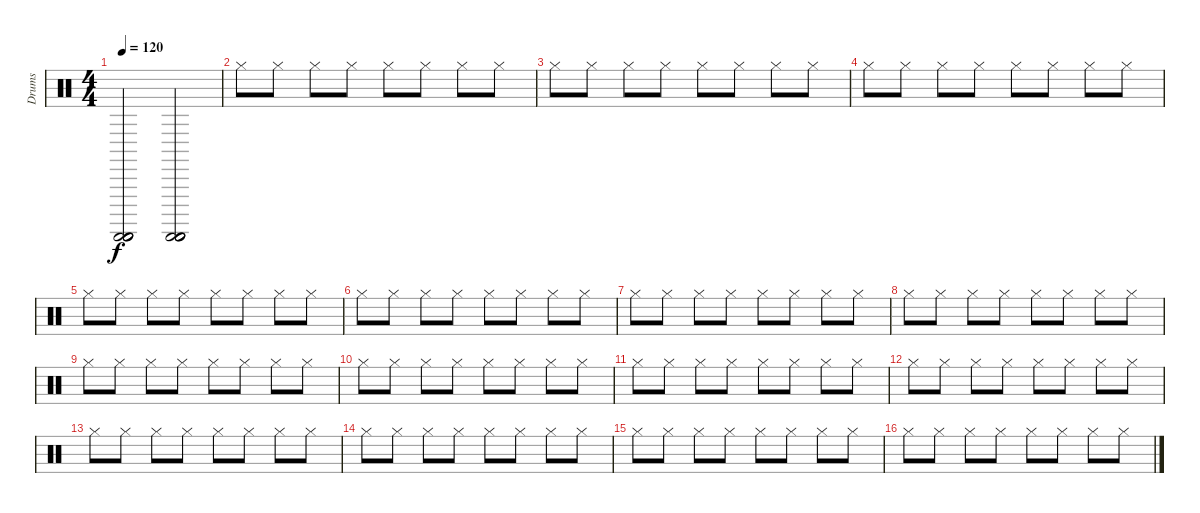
\track ("Drums" "Drums") {instrument percussion}
\staff {score}
\articulation defaults
\ts (4 4)
\tempo 120
\clef neutral
\ks c
("Guiro (scrap-return)" "Guiro (scrap-return)" "Guiro (scrap-return)" "Guiro (scrap-return)").2{dy f} ("Guiro (scrap-return)" "Guiro (scrap-return)" "Guiro (scrap-return)" "Guiro (scrap-return)").2 |
"Hi-Hat (closed)".8 "Hi-Hat (closed)".8 "Hi-Hat (closed)".8 "Hi-Hat (closed)".8 "Hi-Hat (closed)".8 "Hi-Hat (closed)".8 "Hi-Hat (closed)".8 "Hi-Hat (closed)".8 |
"Hi-Hat (closed)".8 "Hi-Hat (closed)".8 "Hi-Hat (closed)".8 "Hi-Hat (closed)".8 "Hi-Hat (closed)".8 "Hi-Hat (closed)".8 "Hi-Hat (closed)".8 "Hi-Hat (closed)".8 |
"Hi-Hat (closed)".8 "Hi-Hat (closed)".8 "Hi-Hat (closed)".8 "Hi-Hat (closed)".8 "Hi-Hat (closed)".8 "Hi-Hat (closed)".8 "Hi-Hat (closed)".8 "Hi-Hat (closed)".8 |
"Hi-Hat (closed)".8 "Hi-Hat (closed)".8 "Hi-Hat (closed)".8 "Hi-Hat (closed)".8 "Hi-Hat (closed)".8 "Hi-Hat (closed)".8 "Hi-Hat (closed)".8 "Hi-Hat (closed)".8 |
"Hi-Hat (closed)".8 "Hi-Hat (closed)".8 "Hi-Hat (closed)".8 "Hi-Hat (closed)".8 "Hi-Hat (closed)".8 "Hi-Hat (closed)".8 "Hi-Hat (closed)".8 "Hi-Hat (closed)".8 |
"Hi-Hat (closed)".8 "Hi-Hat (closed)".8 "Hi-Hat (closed)".8 "Hi-Hat (closed)".8 "Hi-Hat (closed)".8 "Hi-Hat (closed)".8 "Hi-Hat (closed)".8 "Hi-Hat (closed)".8 |
"Hi-Hat (closed)".8 "Hi-Hat (closed)".8 "Hi-Hat (closed)".8 "Hi-Hat (closed)".8 "Hi-Hat (closed)".8 "Hi-Hat (closed)".8 "Hi-Hat (closed)".8 "Hi-Hat (closed)".8 |
"Hi-Hat (closed)".8 "Hi-Hat (closed)".8 "Hi-Hat (closed)".8 "Hi-Hat (closed)".8 "Hi-Hat (closed)".8 "Hi-Hat (closed)".8 "Hi-Hat (closed)".8 "Hi-Hat (closed)".8 |
"Hi-Hat (closed)".8 "Hi-Hat (closed)".8 "Hi-Hat (closed)".8 "Hi-Hat (closed)".8 "Hi-Hat (closed)".8 "Hi-Hat (closed)".8 "Hi-Hat (closed)".8 "Hi-Hat (closed)".8 |
"Hi-Hat (closed)".8 "Hi-Hat (closed)".8 "Hi-Hat (closed)".8 "Hi-Hat (closed)".8 "Hi-Hat (closed)".8 "Hi-Hat (closed)".8 "Hi-Hat (closed)".8 "Hi-Hat (closed)".8 |
"Hi-Hat (closed)".8 "Hi-Hat (closed)".8 "Hi-Hat (closed)".8 "Hi-Hat (closed)".8 "Hi-Hat (closed)".8 "Hi-Hat (closed)".8 "Hi-Hat (closed)".8 "Hi-Hat (closed)".8 |
"Hi-Hat (closed)".8 "Hi-Hat (closed)".8 "Hi-Hat (closed)".8 "Hi-Hat (closed)".8 "Hi-Hat (closed)".8 "Hi-Hat (closed)".8 "Hi-Hat (closed)".8 "Hi-Hat (closed)".8 |
"Hi-Hat (closed)".8 "Hi-Hat (closed)".8 "Hi-Hat (closed)".8 "Hi-Hat (closed)".8 "Hi-Hat (closed)".8 "Hi-Hat (closed)".8 "Hi-Hat (closed)".8 "Hi-Hat (closed)".8 |
"Hi-Hat (closed)".8 "Hi-Hat (closed)".8 "Hi-Hat (closed)".8 "Hi-Hat (closed)".8 "Hi-Hat (closed)".8 "Hi-Hat (closed)".8 "Hi-Hat (closed)".8 "Hi-Hat (closed)".8 |
"Hi-Hat (closed)".8 "Hi-Hat (closed)".8 "Hi-Hat (closed)".8 "Hi-Hat (closed)".8 "Hi-Hat (closed)".8 "Hi-Hat (closed)".8 "Hi-Hat (closed)".8 "Hi-Hat (closed)".8
